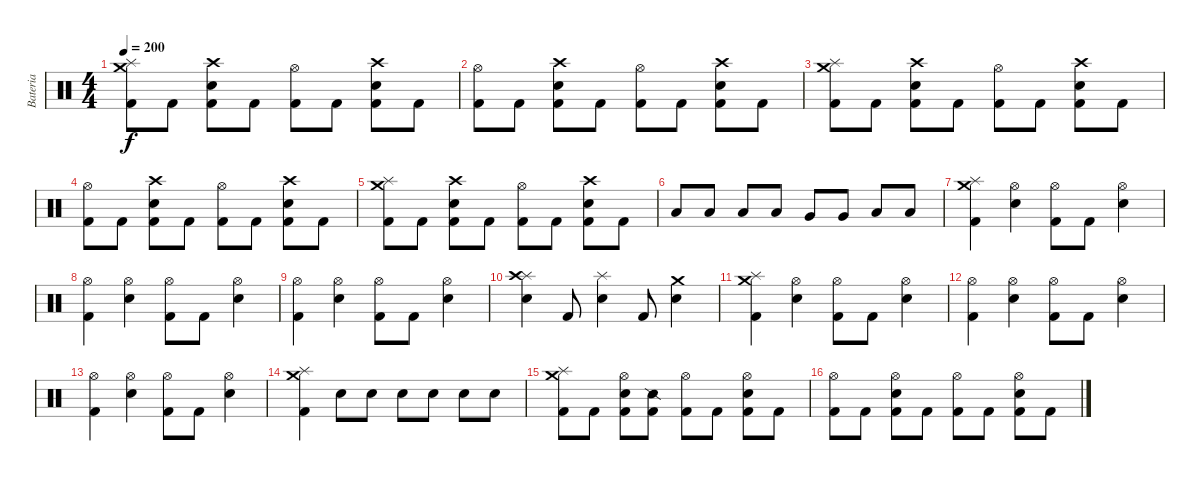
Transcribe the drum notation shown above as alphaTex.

\track ("Bateria " "Bateria ") {instrument percussion}
\staff {score}
\articulation defaults
\ts (4 4)
\tempo 200
\clef neutral
\ks c
("Kick (hit) 2" "Crash medium (hit)" "Splash (hit)").8{dy f} "Kick (hit) 2".8 ("Kick (hit) 2" "Electric Snare (hit)" "Crash high (hit)").8 "Kick (hit) 2".8 ("Kick (hit) 2" "Hi-Hat (open)").8 "Kick (hit) 2".8 ("Kick (hit) 2" "Electric Snare (hit)" "Crash high (hit)").8 "Kick (hit) 2".8 |
("Kick (hit) 2" "Hi-Hat (open)").8 "Kick (hit) 2".8 ("Kick (hit) 2" "Electric Snare (hit)" "Crash high (hit)").8 "Kick (hit) 2".8 ("Kick (hit) 2" "Hi-Hat (open)").8 "Kick (hit) 2".8 ("Kick (hit) 2" "Electric Snare (hit)" "Crash high (hit)").8 "Kick (hit) 2".8 |
("Kick (hit) 2" "Crash medium (hit)" "Splash (hit)").8 "Kick (hit) 2".8 ("Kick (hit) 2" "Electric Snare (hit)" "Crash high (hit)").8 "Kick (hit) 2".8 ("Kick (hit) 2" "Hi-Hat (open)").8 "Kick (hit) 2".8 ("Kick (hit) 2" "Electric Snare (hit)" "Crash high (hit)").8 "Kick (hit) 2".8 |
("Kick (hit) 2" "Hi-Hat (open)").8 "Kick (hit) 2".8 ("Kick (hit) 2" "Electric Snare (hit)" "Crash high (hit)").8 "Kick (hit) 2".8 ("Kick (hit) 2" "Hi-Hat (open)").8 "Kick (hit) 2".8 ("Kick (hit) 2" "Electric Snare (hit)" "Crash high (hit)").8 "Kick (hit) 2".8 |
("Kick (hit) 2" "Crash medium (hit)" "Splash (hit)").8 "Kick (hit) 2".8 ("Kick (hit) 2" "Electric Snare (hit)" "Crash high (hit)").8 "Kick (hit) 2".8 ("Kick (hit) 2" "Hi-Hat (open)").8 "Kick (hit) 2".8 ("Kick (hit) 2" "Electric Snare (hit)" "Crash high (hit)").8 "Kick (hit) 2".8 |
"Low Tom (hit)".8 "Low Tom (hit)".8 "Low Tom (hit)".8 "Low Tom (hit)".8 "Very Low Tom (hit)".8 "Very Low Tom (hit)".8 "Low Floor Tom (hit)".8 "Low Floor Tom (hit)".8 |
("Kick (hit) 2" "Crash medium (hit)" "Splash (hit)").4 ("Electric Snare (hit)" "Hi-Hat (open)").4 ("Kick (hit) 2" "Hi-Hat (open)").8 "Kick (hit) 2".8 ("Electric Snare (hit)" "Hi-Hat (open)").4 |
("Kick (hit) 2" "Hi-Hat (open)").4 ("Electric Snare (hit)" "Hi-Hat (open)").4 ("Kick (hit) 2" "Hi-Hat (open)").8 "Kick (hit) 2".8 ("Electric Snare (hit)" "Hi-Hat (open)").4 |
("Kick (hit) 2" "Hi-Hat (open)").4 ("Electric Snare (hit)" "Hi-Hat (open)").4 ("Kick (hit) 2" "Hi-Hat (open)").8 "Kick (hit) 2".8 ("Electric Snare (hit)" "Hi-Hat (open)").4 |
("Electric Snare (hit)" "Splash (hit)" "Crash high (hit)").4 "Kick (hit) 2".8 ("Electric Snare (hit)" "Splash (hit)").4 "Kick (hit) 2".8 ("Electric Snare (hit)" "Crash medium (hit)").4 |
("Kick (hit) 2" "Crash medium (hit)" "Splash (hit)").4 ("Electric Snare (hit)" "Hi-Hat (open)").4 ("Kick (hit) 2" "Hi-Hat (open)").8 "Kick (hit) 2".8 ("Electric Snare (hit)" "Hi-Hat (open)").4 |
("Kick (hit) 2" "Hi-Hat (open)").4 ("Electric Snare (hit)" "Hi-Hat (open)").4 ("Kick (hit) 2" "Hi-Hat (open)").8 "Kick (hit) 2".8 ("Electric Snare (hit)" "Hi-Hat (open)").4 |
("Kick (hit) 2" "Hi-Hat (open)").4 ("Electric Snare (hit)" "Hi-Hat (open)").4 ("Kick (hit) 2" "Hi-Hat (open)").8 "Kick (hit) 2".8 ("Electric Snare (hit)" "Hi-Hat (open)").4 |
("Kick (hit) 2" "Splash (hit)" "Crash medium (hit)").4 "Electric Snare (hit)".8 "Electric Snare (hit)".8 "Electric Snare (hit)".8 "Electric Snare (hit)".8 "Electric Snare (hit)".8 "Electric Snare (hit)".8 |
("Kick (hit) 2" "Splash (hit)" "Crash medium (hit)").8 "Kick (hit) 2".8 ("Kick (hit) 2" "Electric Snare (hit)" "Hi-Hat (open)").8 ("Kick (hit) 2" "Snare (side stick) 2").8 ("Kick (hit) 2" "Hi-Hat (open)").8 "Kick (hit) 2".8 ("Kick (hit) 2" "Electric Snare (hit)" "Hi-Hat (open)").8 "Kick (hit) 2".8 |
("Kick (hit) 2" "Hi-Hat (open)").8 "Kick (hit) 2".8 ("Kick (hit) 2" "Electric Snare (hit)" "Hi-Hat (open)").8 "Kick (hit) 2".8 ("Kick (hit) 2" "Hi-Hat (open)").8 "Kick (hit) 2".8 ("Kick (hit) 2" "Electric Snare (hit)" "Hi-Hat (open)").8 "Kick (hit) 2".8
